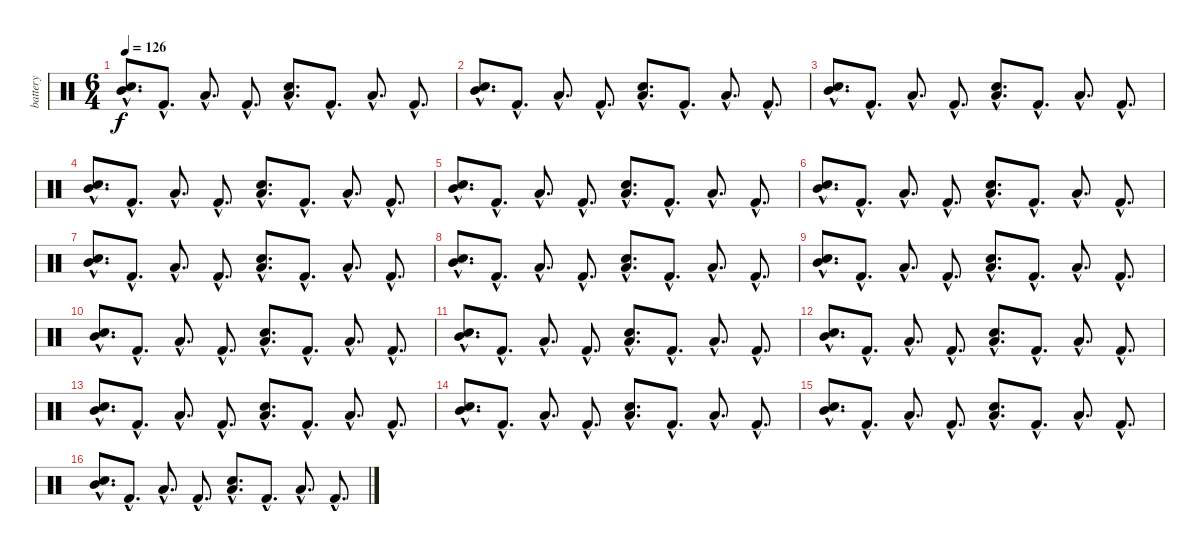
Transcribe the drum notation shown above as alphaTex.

\track ("battery" "battery") {instrument percussion}
\staff {score}
\articulation defaults
\ts (6 4)
\tempo 126
\clef neutral
\ks c
("Snare (hit) 2"{hac} "Mid Tom (hit)"{hac}).8{d dy f} "Kick (hit) 2"{hac}.8{d} "Low Tom (hit)"{hac}.8{d} "Kick (hit) 2"{hac}.8{d} ("Snare (hit) 2"{hac} "Low Tom (hit)"{hac}).8{d} "Kick (hit) 2"{hac}.8{d} "Low Tom (hit)"{hac}.8{d} "Kick (hit) 2"{hac}.8{d} |
("Snare (hit) 2"{hac} "Mid Tom (hit)"{hac}).8{d} "Kick (hit) 2"{hac}.8{d} "Low Tom (hit)"{hac}.8{d} "Kick (hit) 2"{hac}.8{d} ("Snare (hit) 2"{hac} "Low Tom (hit)"{hac}).8{d} "Kick (hit) 2"{hac}.8{d} "Low Tom (hit)"{hac}.8{d} "Kick (hit) 2"{hac}.8{d} |
("Snare (hit) 2"{hac} "Mid Tom (hit)"{hac}).8{d} "Kick (hit) 2"{hac}.8{d} "Low Tom (hit)"{hac}.8{d} "Kick (hit) 2"{hac}.8{d} ("Snare (hit) 2"{hac} "Low Tom (hit)"{hac}).8{d} "Kick (hit) 2"{hac}.8{d} "Low Tom (hit)"{hac}.8{d} "Kick (hit) 2"{hac}.8{d} |
("Snare (hit) 2"{hac} "Mid Tom (hit)"{hac}).8{d} "Kick (hit) 2"{hac}.8{d} "Low Tom (hit)"{hac}.8{d} "Kick (hit) 2"{hac}.8{d} ("Snare (hit) 2"{hac} "Low Tom (hit)"{hac}).8{d} "Kick (hit) 2"{hac}.8{d} "Low Tom (hit)"{hac}.8{d} "Kick (hit) 2"{hac}.8{d} |
("Snare (hit) 2"{hac} "Mid Tom (hit)"{hac}).8{d} "Kick (hit) 2"{hac}.8{d} "Low Tom (hit)"{hac}.8{d} "Kick (hit) 2"{hac}.8{d} ("Snare (hit) 2"{hac} "Low Tom (hit)"{hac}).8{d} "Kick (hit) 2"{hac}.8{d} "Low Tom (hit)"{hac}.8{d} "Kick (hit) 2"{hac}.8{d} |
("Snare (hit) 2"{hac} "Mid Tom (hit)"{hac}).8{d} "Kick (hit) 2"{hac}.8{d} "Low Tom (hit)"{hac}.8{d} "Kick (hit) 2"{hac}.8{d} ("Snare (hit) 2"{hac} "Low Tom (hit)"{hac}).8{d} "Kick (hit) 2"{hac}.8{d} "Low Tom (hit)"{hac}.8{d} "Kick (hit) 2"{hac}.8{d} |
("Snare (hit) 2"{hac} "Mid Tom (hit)"{hac}).8{d} "Kick (hit) 2"{hac}.8{d} "Low Tom (hit)"{hac}.8{d} "Kick (hit) 2"{hac}.8{d} ("Snare (hit) 2"{hac} "Low Tom (hit)"{hac}).8{d} "Kick (hit) 2"{hac}.8{d} "Low Tom (hit)"{hac}.8{d} "Kick (hit) 2"{hac}.8{d} |
("Snare (hit) 2"{hac} "Mid Tom (hit)"{hac}).8{d} "Kick (hit) 2"{hac}.8{d} "Low Tom (hit)"{hac}.8{d} "Kick (hit) 2"{hac}.8{d} ("Snare (hit) 2"{hac} "Low Tom (hit)"{hac}).8{d} "Kick (hit) 2"{hac}.8{d} "Low Tom (hit)"{hac}.8{d} "Kick (hit) 2"{hac}.8{d} |
("Snare (hit) 2"{hac} "Mid Tom (hit)"{hac}).8{d} "Kick (hit) 2"{hac}.8{d} "Low Tom (hit)"{hac}.8{d} "Kick (hit) 2"{hac}.8{d} ("Snare (hit) 2"{hac} "Low Tom (hit)"{hac}).8{d} "Kick (hit) 2"{hac}.8{d} "Low Tom (hit)"{hac}.8{d} "Kick (hit) 2"{hac}.8{d} |
("Snare (hit) 2"{hac} "Mid Tom (hit)"{hac}).8{d} "Kick (hit) 2"{hac}.8{d} "Low Tom (hit)"{hac}.8{d} "Kick (hit) 2"{hac}.8{d} ("Snare (hit) 2"{hac} "Low Tom (hit)"{hac}).8{d} "Kick (hit) 2"{hac}.8{d} "Low Tom (hit)"{hac}.8{d} "Kick (hit) 2"{hac}.8{d} |
("Snare (hit) 2"{hac} "Mid Tom (hit)"{hac}).8{d} "Kick (hit) 2"{hac}.8{d} "Low Tom (hit)"{hac}.8{d} "Kick (hit) 2"{hac}.8{d} ("Snare (hit) 2"{hac} "Low Tom (hit)"{hac}).8{d} "Kick (hit) 2"{hac}.8{d} "Low Tom (hit)"{hac}.8{d} "Kick (hit) 2"{hac}.8{d} |
("Snare (hit) 2"{hac} "Mid Tom (hit)"{hac}).8{d} "Kick (hit) 2"{hac}.8{d} "Low Tom (hit)"{hac}.8{d} "Kick (hit) 2"{hac}.8{d} ("Snare (hit) 2"{hac} "Low Tom (hit)"{hac}).8{d} "Kick (hit) 2"{hac}.8{d} "Low Tom (hit)"{hac}.8{d} "Kick (hit) 2"{hac}.8{d} |
("Snare (hit) 2"{hac} "Mid Tom (hit)"{hac}).8{d} "Kick (hit) 2"{hac}.8{d} "Low Tom (hit)"{hac}.8{d} "Kick (hit) 2"{hac}.8{d} ("Snare (hit) 2"{hac} "Low Tom (hit)"{hac}).8{d} "Kick (hit) 2"{hac}.8{d} "Low Tom (hit)"{hac}.8{d} "Kick (hit) 2"{hac}.8{d} |
("Snare (hit) 2"{hac} "Mid Tom (hit)"{hac}).8{d} "Kick (hit) 2"{hac}.8{d} "Low Tom (hit)"{hac}.8{d} "Kick (hit) 2"{hac}.8{d} ("Snare (hit) 2"{hac} "Low Tom (hit)"{hac}).8{d} "Kick (hit) 2"{hac}.8{d} "Low Tom (hit)"{hac}.8{d} "Kick (hit) 2"{hac}.8{d} |
("Snare (hit) 2"{hac} "Mid Tom (hit)"{hac}).8{d} "Kick (hit) 2"{hac}.8{d} "Low Tom (hit)"{hac}.8{d} "Kick (hit) 2"{hac}.8{d} ("Snare (hit) 2"{hac} "Low Tom (hit)"{hac}).8{d} "Kick (hit) 2"{hac}.8{d} "Low Tom (hit)"{hac}.8{d} "Kick (hit) 2"{hac}.8{d} |
("Snare (hit) 2"{hac} "Mid Tom (hit)"{hac}).8{d} "Kick (hit) 2"{hac}.8{d} "Low Tom (hit)"{hac}.8{d} "Kick (hit) 2"{hac}.8{d} ("Snare (hit) 2"{hac} "Low Tom (hit)"{hac}).8{d} "Kick (hit) 2"{hac}.8{d} "Low Tom (hit)"{hac}.8{d} "Kick (hit) 2"{hac}.8{d}
